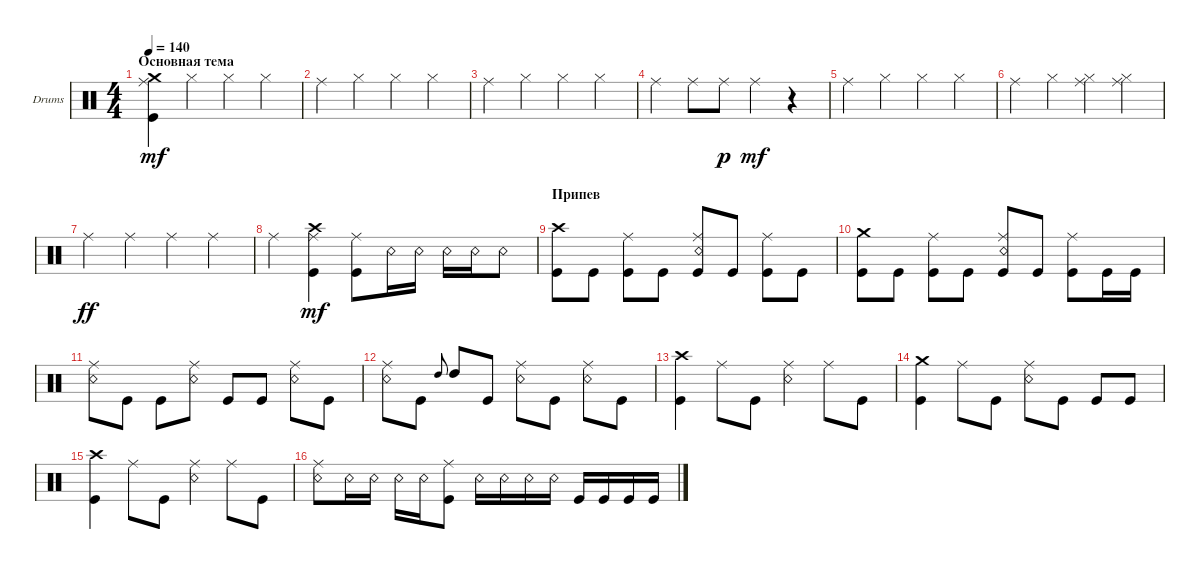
\defaultSystemsLayout 4
\bracketExtendMode groupsimilarinstruments
\firstSystemTrackNameOrientation horizontal
\otherSystemsTrackNameOrientation horizontal
\track ("Drumkit" "Drums") {instrument percussion}
\staff {score}
\articulation defaults
\ts (4 4)
\section ("" "Основная тема")
\tempo 140
\clef neutral
\scale
0.333333
\ks c
("Kick (hit)" "Crash medium (hit)" "Ride (middle)").4{dy mf} "Hi-Hat (closed)".4 "Hi-Hat (closed)".4 "Hi-Hat (closed)".4 |
\scale
0.333333 "Ride (middle)".4 "Hi-Hat (closed)".4 "Hi-Hat (closed)".4 "Hi-Hat (closed)".4 |
\scale
0.333333 "Ride (middle)".4 "Hi-Hat (closed)".4 "Hi-Hat (closed)".4 "Hi-Hat (closed)".4 |
\scale
0.333333 "Ride (middle)".4 "Ride (middle)".8 "Ride (middle)".8{dy p} "Ride (middle)".4{dy mf} r.4 |
\scale
0.333333 "Ride (middle)".4 "Hi-Hat (closed)".4 "Hi-Hat (closed)".4 "Hi-Hat (closed)".4 |
\scale
0.333333 "Ride (middle)".4 "Hi-Hat (closed)".4 ("Hi-Hat (closed)" "Ride (middle)").4 ("Hi-Hat (closed)" "Ride (middle)").4 |
\scale
0.333333 "Ride (middle)".4{dy ff} "Ride (middle)".4 "Ride (middle)".4 "Ride (middle)".4 |
"Ride (middle)".4 ("Kick (hit)" "Ride (middle)" "Crash high (hit)").4{dy mf} ("Kick (hit)" "Ride (middle)").8 "Snare (rim shot)".16 "Snare (rim shot)".16 "Snare (rim shot)".16 "Snare (rim shot)".16 "Snare (rim shot)".8 |
\section ("" "Припев")
("Kick (hit)" "Crash high (hit)").8 "Kick (hit)".8 ("Kick (hit)" "Ride (middle)").8 "Kick (hit)".8 ("Snare (rim shot)" "Ride (middle)" "Kick (hit)").8 "Kick (hit)".8 ("Kick (hit)" "Ride (middle)").8 "Kick (hit)".8 |
("Kick (hit)" "Crash medium (hit)").8 "Kick (hit)".8 ("Kick (hit)" "Ride (middle)").8 "Kick (hit)".8 ("Snare (rim shot)" "Ride (middle)" "Kick (hit)").8 "Kick (hit)".8 ("Kick (hit)" "Ride (middle)").8 "Kick (hit)".16 "Kick (hit)".16 |
("Snare (rim shot)" "Ride (middle)").8 "Kick (hit)".8 "Kick (hit)".8 ("Snare (rim shot)" "Ride (middle)").8 "Kick (hit)".8 "Kick (hit)".8 ("Snare (rim shot)" "Ride (middle)").8 "Kick (hit)".8 |
("Snare (rim shot)" "Ride (middle)").8 "Kick (hit)".8 "High Tom (hit)".8{gr onbeat} "High Tom (hit)".8 "Kick (hit)".8 ("Snare (rim shot)" "Ride (middle)").8 "Kick (hit)".8 ("Snare (rim shot)" "Ride (middle)").8 "Kick (hit)".8 |
("Kick (hit)" "Crash high (hit)").4 "Ride (middle)".8 "Kick (hit)".8 ("Snare (rim shot)" "Ride (middle)").4 "Ride (middle)".8 "Kick (hit)".8 |
("Kick (hit)" "Crash medium (hit)").4 "Ride (middle)".8 "Kick (hit)".8 ("Snare (rim shot)" "Ride (middle)").8 "Kick (hit)".8 "Kick (hit)".8 "Kick (hit)".8 |
("Kick (hit)" "Crash high (hit)").4 "Ride (middle)".8 "Kick (hit)".8 ("Snare (rim shot)" "Ride (middle)").4 "Ride (middle)".8 "Kick (hit)".8 |
("Snare (rim shot)" "Ride (middle)").8 "Snare (rim shot)".16 "Snare (rim shot)".16 "Snare (rim shot)".16 "Snare (rim shot)".16 ("Kick (hit)" "Ride (middle)").8 "Snare (rim shot)".16 "Snare (rim shot)".16 "Snare (rim shot)".16 "Snare (rim shot)".16 "Kick (hit)".16 "Kick (hit)".16 "Kick (hit)".16 "Kick (hit)".16
